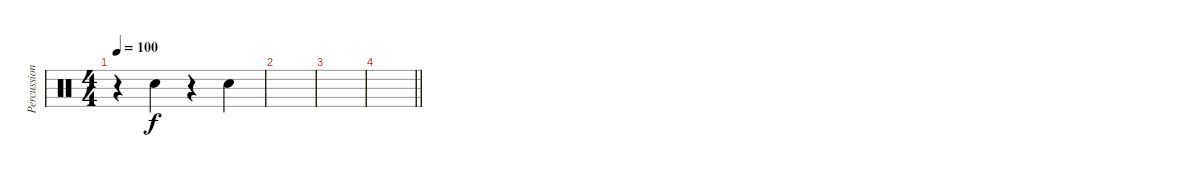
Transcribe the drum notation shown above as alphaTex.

\track ("Percussion" "Percussion") {instrument percussion}
\staff {score}
\articulation defaults
\ts (4 4)
\tempo 100
\clef neutral
\ks c
r.4{dy f} "Hand Clap (hit)".4 r.4 "Hand Clap (hit)".4 |
|
|
\barLineRight lightlight
